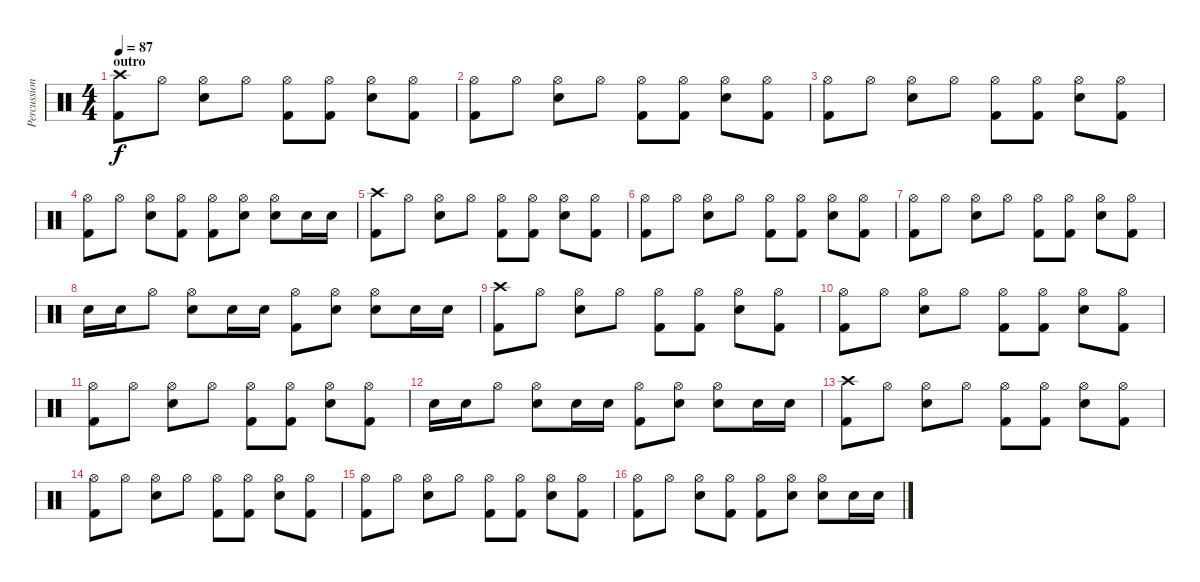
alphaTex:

\track ("Percussion" "Percussion") {instrument percussion}
\staff {score}
\articulation defaults
\ts (4 4)
\section ("" "outro")
\tempo 87
\clef neutral
\ks c
("Crash high (hit)" "Kick (hit) 2").8{dy f} "Hi-Hat (open)".8 ("Hi-Hat (open)" "Snare (hit) 2").8 "Hi-Hat (open)".8 ("Hi-Hat (open)" "Kick (hit) 2").8 ("Hi-Hat (open)" "Kick (hit) 2").8 ("Hi-Hat (open)" "Snare (hit) 2").8 ("Hi-Hat (open)" "Kick (hit) 2").8 |
("Hi-Hat (open)" "Kick (hit) 2").8 "Hi-Hat (open)".8 ("Hi-Hat (open)" "Snare (hit) 2").8 "Hi-Hat (open)".8 ("Hi-Hat (open)" "Kick (hit) 2").8 ("Hi-Hat (open)" "Kick (hit) 2").8 ("Hi-Hat (open)" "Snare (hit) 2").8 ("Hi-Hat (open)" "Kick (hit) 2").8 |
("Hi-Hat (open)" "Kick (hit) 2").8 "Hi-Hat (open)".8 ("Hi-Hat (open)" "Snare (hit) 2").8 "Hi-Hat (open)".8 ("Hi-Hat (open)" "Kick (hit) 2").8 ("Hi-Hat (open)" "Kick (hit) 2").8 ("Hi-Hat (open)" "Snare (hit) 2").8 ("Hi-Hat (open)" "Kick (hit) 2").8 |
("Hi-Hat (open)" "Kick (hit) 2").8 "Hi-Hat (open)".8 ("Hi-Hat (open)" "Snare (hit) 2").8 ("Hi-Hat (open)" "Kick (hit) 2").8 ("Hi-Hat (open)" "Kick (hit) 2").8 ("Hi-Hat (open)" "Snare (hit) 2").8 ("Hi-Hat (open)" "Snare (hit) 2").8 "Snare (hit) 2".16 "Snare (hit) 2".16 |
("Crash high (hit)" "Kick (hit) 2").8 "Hi-Hat (open)".8 ("Hi-Hat (open)" "Snare (hit) 2").8 "Hi-Hat (open)".8 ("Hi-Hat (open)" "Kick (hit) 2").8 ("Hi-Hat (open)" "Kick (hit) 2").8 ("Hi-Hat (open)" "Snare (hit) 2").8 ("Hi-Hat (open)" "Kick (hit) 2").8 |
("Hi-Hat (open)" "Kick (hit) 2").8 "Hi-Hat (open)".8 ("Hi-Hat (open)" "Snare (hit) 2").8 "Hi-Hat (open)".8 ("Hi-Hat (open)" "Kick (hit) 2").8 ("Hi-Hat (open)" "Kick (hit) 2").8 ("Hi-Hat (open)" "Snare (hit) 2").8 ("Hi-Hat (open)" "Kick (hit) 2").8 |
("Hi-Hat (open)" "Kick (hit) 2").8 "Hi-Hat (open)".8 ("Hi-Hat (open)" "Snare (hit) 2").8 "Hi-Hat (open)".8 ("Hi-Hat (open)" "Kick (hit) 2").8 ("Hi-Hat (open)" "Kick (hit) 2").8 ("Hi-Hat (open)" "Snare (hit) 2").8 ("Hi-Hat (open)" "Kick (hit) 2").8 |
"Snare (hit) 2".16 "Snare (hit) 2".16 "Hi-Hat (open)".8 ("Hi-Hat (open)" "Snare (hit) 2").8 "Snare (hit) 2".16 "Snare (hit) 2".16 ("Hi-Hat (open)" "Kick (hit) 2").8 ("Hi-Hat (open)" "Snare (hit) 2").8 ("Hi-Hat (open)" "Snare (hit) 2").8 "Snare (hit) 2".16 "Snare (hit) 2".16 |
("Crash high (hit)" "Kick (hit) 2").8 "Hi-Hat (open)".8 ("Hi-Hat (open)" "Snare (hit) 2").8 "Hi-Hat (open)".8 ("Hi-Hat (open)" "Kick (hit) 2").8 ("Hi-Hat (open)" "Kick (hit) 2").8 ("Hi-Hat (open)" "Snare (hit) 2").8 ("Hi-Hat (open)" "Kick (hit) 2").8 |
("Hi-Hat (open)" "Kick (hit) 2").8 "Hi-Hat (open)".8 ("Hi-Hat (open)" "Snare (hit) 2").8 "Hi-Hat (open)".8 ("Hi-Hat (open)" "Kick (hit) 2").8 ("Hi-Hat (open)" "Kick (hit) 2").8 ("Hi-Hat (open)" "Snare (hit) 2").8 ("Hi-Hat (open)" "Kick (hit) 2").8 |
("Hi-Hat (open)" "Kick (hit) 2").8 "Hi-Hat (open)".8 ("Hi-Hat (open)" "Snare (hit) 2").8 "Hi-Hat (open)".8 ("Hi-Hat (open)" "Kick (hit) 2").8 ("Hi-Hat (open)" "Kick (hit) 2").8 ("Hi-Hat (open)" "Snare (hit) 2").8 ("Hi-Hat (open)" "Kick (hit) 2").8 |
"Snare (hit) 2".16 "Snare (hit) 2".16 "Hi-Hat (open)".8 ("Hi-Hat (open)" "Snare (hit) 2").8 "Snare (hit) 2".16 "Snare (hit) 2".16 ("Hi-Hat (open)" "Kick (hit) 2").8 ("Hi-Hat (open)" "Snare (hit) 2").8 ("Hi-Hat (open)" "Snare (hit) 2").8 "Snare (hit) 2".16 "Snare (hit) 2".16 |
("Crash high (hit)" "Kick (hit) 2").8 "Hi-Hat (open)".8 ("Hi-Hat (open)" "Snare (hit) 2").8 "Hi-Hat (open)".8 ("Hi-Hat (open)" "Kick (hit) 2").8 ("Hi-Hat (open)" "Kick (hit) 2").8 ("Hi-Hat (open)" "Snare (hit) 2").8 ("Hi-Hat (open)" "Kick (hit) 2").8 |
("Hi-Hat (open)" "Kick (hit) 2").8 "Hi-Hat (open)".8 ("Hi-Hat (open)" "Snare (hit) 2").8 "Hi-Hat (open)".8 ("Hi-Hat (open)" "Kick (hit) 2").8 ("Hi-Hat (open)" "Kick (hit) 2").8 ("Hi-Hat (open)" "Snare (hit) 2").8 ("Hi-Hat (open)" "Kick (hit) 2").8 |
("Hi-Hat (open)" "Kick (hit) 2").8 "Hi-Hat (open)".8 ("Hi-Hat (open)" "Snare (hit) 2").8 "Hi-Hat (open)".8 ("Hi-Hat (open)" "Kick (hit) 2").8 ("Hi-Hat (open)" "Kick (hit) 2").8 ("Hi-Hat (open)" "Snare (hit) 2").8 ("Hi-Hat (open)" "Kick (hit) 2").8 |
("Hi-Hat (open)" "Kick (hit) 2").8 "Hi-Hat (open)".8 ("Hi-Hat (open)" "Snare (hit) 2").8 ("Hi-Hat (open)" "Kick (hit) 2").8 ("Hi-Hat (open)" "Kick (hit) 2").8 ("Hi-Hat (open)" "Snare (hit) 2").8 ("Hi-Hat (open)" "Snare (hit) 2").8 "Snare (hit) 2".16 "Snare (hit) 2".16
